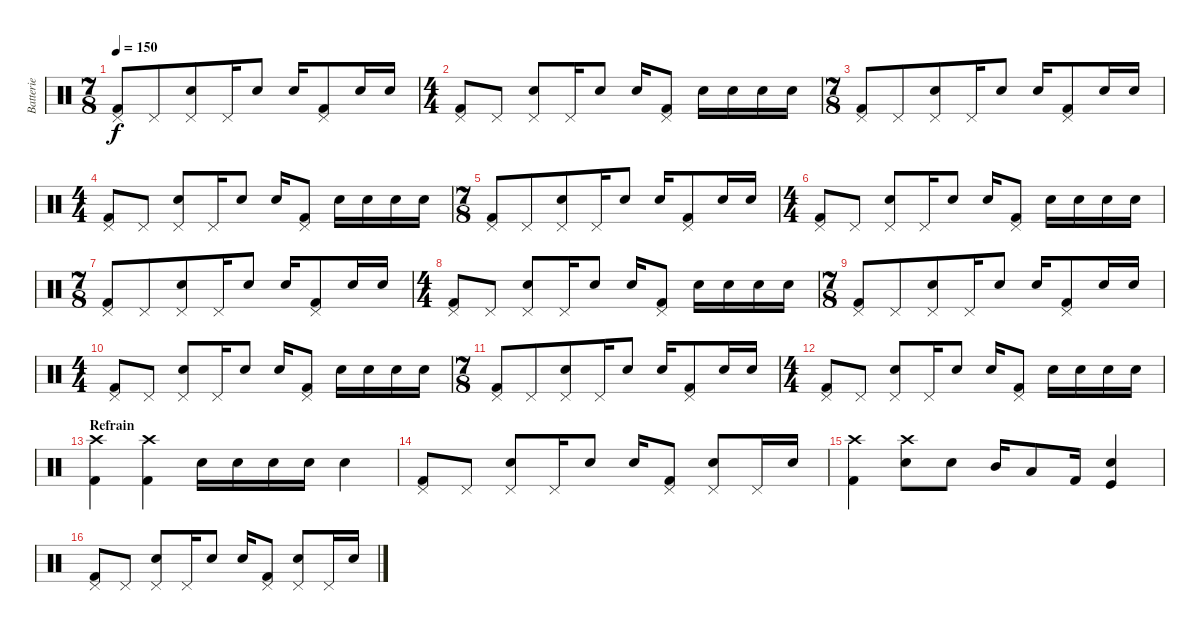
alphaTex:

\track ("Batterie" "Batterie") {instrument percussion}
\staff {score}
\articulation defaults
\ts (7 8)
\tempo 150
\clef neutral
\ks c
("Pedal Hi-Hat (hit)" "Kick (hit) 2").8{dy f} "Pedal Hi-Hat (hit)".8 ("Pedal Hi-Hat (hit)" "Electric Snare (hit)").8 "Pedal Hi-Hat (hit)".16 "Electric Snare (hit)".8 "Electric Snare (hit)".16 ("Pedal Hi-Hat (hit)" "Kick (hit) 2").8 "Electric Snare (hit)".16 "Electric Snare (hit)".16 |
\ts (4 4)
("Pedal Hi-Hat (hit)" "Kick (hit) 2").8 "Pedal Hi-Hat (hit)".8 ("Pedal Hi-Hat (hit)" "Electric Snare (hit)").8 "Pedal Hi-Hat (hit)".16 "Electric Snare (hit)".8 "Electric Snare (hit)".16 ("Pedal Hi-Hat (hit)" "Kick (hit) 2").8 "Electric Snare (hit)".16 "Electric Snare (hit)".16 "Electric Snare (hit)".16 "Electric Snare (hit)".16 |
\ts (7 8)
("Pedal Hi-Hat (hit)" "Kick (hit) 2").8 "Pedal Hi-Hat (hit)".8 ("Pedal Hi-Hat (hit)" "Electric Snare (hit)").8 "Pedal Hi-Hat (hit)".16 "Electric Snare (hit)".8 "Electric Snare (hit)".16 ("Pedal Hi-Hat (hit)" "Kick (hit) 2").8 "Electric Snare (hit)".16 "Electric Snare (hit)".16 |
\ts (4 4)
("Pedal Hi-Hat (hit)" "Kick (hit) 2").8 "Pedal Hi-Hat (hit)".8 ("Pedal Hi-Hat (hit)" "Electric Snare (hit)").8 "Pedal Hi-Hat (hit)".16 "Electric Snare (hit)".8 "Electric Snare (hit)".16 ("Pedal Hi-Hat (hit)" "Kick (hit) 2").8 "Electric Snare (hit)".16 "Electric Snare (hit)".16 "Electric Snare (hit)".16 "Electric Snare (hit)".16 |
\ts (7 8)
("Pedal Hi-Hat (hit)" "Kick (hit) 2").8 "Pedal Hi-Hat (hit)".8 ("Pedal Hi-Hat (hit)" "Electric Snare (hit)").8 "Pedal Hi-Hat (hit)".16 "Electric Snare (hit)".8 "Electric Snare (hit)".16 ("Pedal Hi-Hat (hit)" "Kick (hit) 2").8 "Electric Snare (hit)".16 "Electric Snare (hit)".16 |
\ts (4 4)
("Pedal Hi-Hat (hit)" "Kick (hit) 2").8 "Pedal Hi-Hat (hit)".8 ("Pedal Hi-Hat (hit)" "Electric Snare (hit)").8 "Pedal Hi-Hat (hit)".16 "Electric Snare (hit)".8 "Electric Snare (hit)".16 ("Pedal Hi-Hat (hit)" "Kick (hit) 2").8 "Electric Snare (hit)".16 "Electric Snare (hit)".16 "Electric Snare (hit)".16 "Electric Snare (hit)".16 |
\ts (7 8)
("Pedal Hi-Hat (hit)" "Kick (hit) 2").8 "Pedal Hi-Hat (hit)".8 ("Pedal Hi-Hat (hit)" "Electric Snare (hit)").8 "Pedal Hi-Hat (hit)".16 "Electric Snare (hit)".8 "Electric Snare (hit)".16 ("Pedal Hi-Hat (hit)" "Kick (hit) 2").8 "Electric Snare (hit)".16 "Electric Snare (hit)".16 |
\ts (4 4)
("Pedal Hi-Hat (hit)" "Kick (hit) 2").8 "Pedal Hi-Hat (hit)".8 ("Pedal Hi-Hat (hit)" "Electric Snare (hit)").8 "Pedal Hi-Hat (hit)".16 "Electric Snare (hit)".8 "Electric Snare (hit)".16 ("Pedal Hi-Hat (hit)" "Kick (hit) 2").8 "Electric Snare (hit)".16 "Electric Snare (hit)".16 "Electric Snare (hit)".16 "Electric Snare (hit)".16 |
\ts (7 8)
("Pedal Hi-Hat (hit)" "Kick (hit) 2").8 "Pedal Hi-Hat (hit)".8 ("Pedal Hi-Hat (hit)" "Electric Snare (hit)").8 "Pedal Hi-Hat (hit)".16 "Electric Snare (hit)".8 "Electric Snare (hit)".16 ("Pedal Hi-Hat (hit)" "Kick (hit) 2").8 "Electric Snare (hit)".16 "Electric Snare (hit)".16 |
\ts (4 4)
("Pedal Hi-Hat (hit)" "Kick (hit) 2").8 "Pedal Hi-Hat (hit)".8 ("Pedal Hi-Hat (hit)" "Electric Snare (hit)").8 "Pedal Hi-Hat (hit)".16 "Electric Snare (hit)".8 "Electric Snare (hit)".16 ("Pedal Hi-Hat (hit)" "Kick (hit) 2").8 "Electric Snare (hit)".16 "Electric Snare (hit)".16 "Electric Snare (hit)".16 "Electric Snare (hit)".16 |
\ts (7 8)
("Pedal Hi-Hat (hit)" "Kick (hit) 2").8 "Pedal Hi-Hat (hit)".8 ("Pedal Hi-Hat (hit)" "Electric Snare (hit)").8 "Pedal Hi-Hat (hit)".16 "Electric Snare (hit)".8 "Electric Snare (hit)".16 ("Pedal Hi-Hat (hit)" "Kick (hit) 2").8 "Electric Snare (hit)".16 "Electric Snare (hit)".16 |
\ts (4 4)
("Pedal Hi-Hat (hit)" "Kick (hit) 2").8 "Pedal Hi-Hat (hit)".8 ("Pedal Hi-Hat (hit)" "Electric Snare (hit)").8 "Pedal Hi-Hat (hit)".16 "Electric Snare (hit)".8 "Electric Snare (hit)".16 ("Pedal Hi-Hat (hit)" "Kick (hit) 2").8 "Electric Snare (hit)".16 "Electric Snare (hit)".16 "Electric Snare (hit)".16 "Electric Snare (hit)".16 |
\section ("" "Refrain")
("Crash high (hit)" "Kick (hit) 2").4 ("Crash high (hit)" "Kick (hit) 2").4 "Electric Snare (hit)".16 "Electric Snare (hit)".16 "Electric Snare (hit)".16 "Electric Snare (hit)".16 "Electric Snare (hit)".4 |
("Pedal Hi-Hat (hit)" "Kick (hit) 2").8 "Pedal Hi-Hat (hit)".8 ("Pedal Hi-Hat (hit)" "Electric Snare (hit)").8 "Pedal Hi-Hat (hit)".16 "Electric Snare (hit)".8 "Electric Snare (hit)".16 ("Pedal Hi-Hat (hit)" "Kick (hit) 2").8 ("Pedal Hi-Hat (hit)" "Electric Snare (hit)").8 "Pedal Hi-Hat (hit)".16 "Electric Snare (hit)".16 |
("Crash high (hit)" "Kick (hit) 2").4 ("Crash high (hit)" "Electric Snare (hit)").8 "Electric Snare (hit)".8 "Mid Tom (hit)".16 "Low Tom (hit)".8 "Kick (hit) 2".16 ("Electric Snare (hit)" "Kick (hit)").4 |
("Pedal Hi-Hat (hit)" "Kick (hit) 2").8 "Pedal Hi-Hat (hit)".8 ("Pedal Hi-Hat (hit)" "Electric Snare (hit)").8 "Pedal Hi-Hat (hit)".16 "Electric Snare (hit)".8 "Electric Snare (hit)".16 ("Pedal Hi-Hat (hit)" "Kick (hit) 2").8 ("Pedal Hi-Hat (hit)" "Electric Snare (hit)").8 "Pedal Hi-Hat (hit)".16 "Electric Snare (hit)".16
